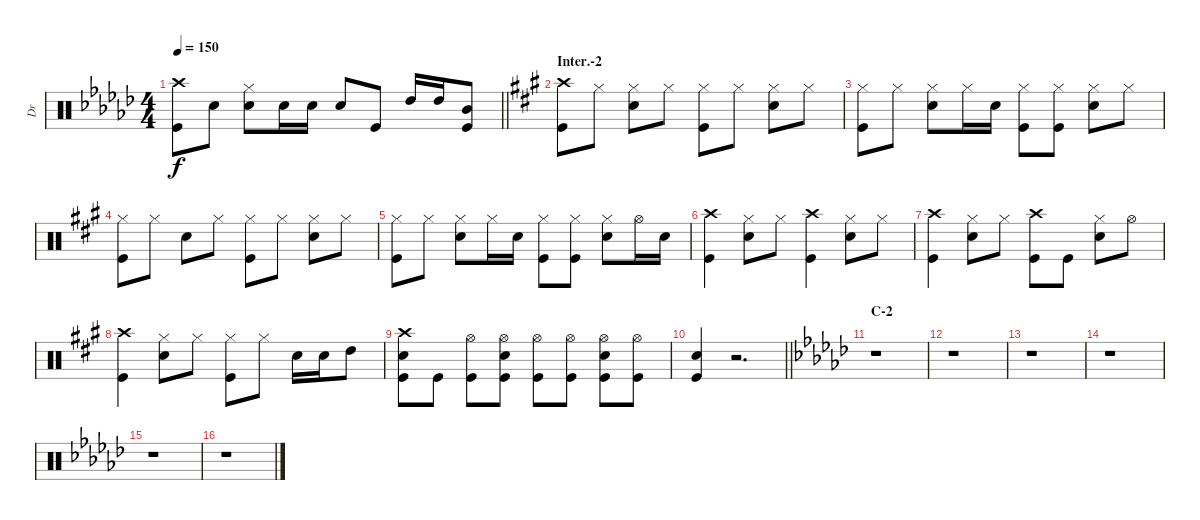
\track ("Dr" "Dr") {instrument percussion}
\staff {score}
\articulation defaults
\ts (4 4)
\tempo 150
\clef neutral
\barLineRight lightlight
\ks gb
("Crash high (hit)" "Kick (hit)").8{dy f} "Electric Snare (hit)".8 ("Hi-Hat (closed)" "Electric Snare (hit)").8 "Electric Snare (hit)".16 "Electric Snare (hit)".16 "Electric Snare (hit)".8 "Kick (hit)".8 "High Tom (hit)".16 "High Tom (hit)".16 ("Mid Tom (hit)" "Kick (hit)").8 |
\section ("" "Inter.-2")
\ks a
("Crash high (hit)" "Kick (hit)").8 "Hi-Hat (closed)".8 ("Hi-Hat (closed)" "Electric Snare (hit)").8 "Hi-Hat (closed)".8 ("Hi-Hat (closed)" "Kick (hit)").8 "Hi-Hat (closed)".8 ("Hi-Hat (closed)" "Electric Snare (hit)").8 "Hi-Hat (closed)".8 |
("Hi-Hat (closed)" "Kick (hit)").8 "Hi-Hat (closed)".8 ("Hi-Hat (closed)" "Electric Snare (hit)").8 "Hi-Hat (closed)".16 "Electric Snare (hit)".16 ("Hi-Hat (closed)" "Kick (hit)").8 ("Hi-Hat (closed)" "Kick (hit)").8 ("Hi-Hat (closed)" "Electric Snare (hit)").8 "Hi-Hat (closed)".8 |
("Hi-Hat (closed)" "Kick (hit)").8 "Hi-Hat (closed)".8 "Electric Snare (hit)".8 "Hi-Hat (closed)".8 ("Hi-Hat (closed)" "Kick (hit)").8 "Hi-Hat (closed)".8 ("Hi-Hat (closed)" "Electric Snare (hit)").8 "Hi-Hat (closed)".8 |
("Hi-Hat (closed)" "Kick (hit)").8 "Hi-Hat (closed)".8 ("Hi-Hat (closed)" "Electric Snare (hit)").8 "Hi-Hat (closed)".16 "Electric Snare (hit)".16 ("Hi-Hat (closed)" "Kick (hit)").8 ("Hi-Hat (closed)" "Kick (hit)").8 ("Hi-Hat (closed)" "Electric Snare (hit)").8 "Hi-Hat (open)".16 "Electric Snare (hit)".16 |
("Crash high (hit)" "Kick (hit)").4 ("Hi-Hat (closed)" "Electric Snare (hit)").8 "Hi-Hat (closed)".8 ("Crash high (hit)" "Kick (hit)").4 ("Hi-Hat (closed)" "Electric Snare (hit)").8 "Hi-Hat (closed)".8 |
("Crash high (hit)" "Kick (hit)").4 ("Hi-Hat (closed)" "Electric Snare (hit)").8 "Hi-Hat (closed)".8 ("Crash high (hit)" "Kick (hit)").8 "Kick (hit)".8 ("Hi-Hat (closed)" "Electric Snare (hit)").8 "Hi-Hat (open)".8 |
("Crash high (hit)" "Kick (hit)").4 ("Hi-Hat (closed)" "Electric Snare (hit)").8 "Hi-Hat (closed)".8 ("Hi-Hat (closed)" "Kick (hit)").8 "Hi-Hat (closed)".8 "Electric Snare (hit)".16 "Electric Snare (hit)".16 "High Tom (hit)".8 |
("Crash high (hit)" "Electric Snare (hit)" "Kick (hit)").8 "Kick (hit)".8 ("Hi-Hat (open)" "Kick (hit)").8 ("Hi-Hat (open)" "Electric Snare (hit)" "Kick (hit)").8 ("Hi-Hat (open)" "Kick (hit)").8 ("Hi-Hat (open)" "Kick (hit)").8 ("Hi-Hat (open)" "Electric Snare (hit)" "Kick (hit)").8 ("Hi-Hat (open)" "Kick (hit)").8 |
\barLineRight lightlight
("Electric Snare (hit)" "Kick (hit)").4 r.2{d} |
\section ("" "C-2")
\ks gb
r.1 |
r.1 |
r.1 |
r.1 |
r.1 |
r.1
